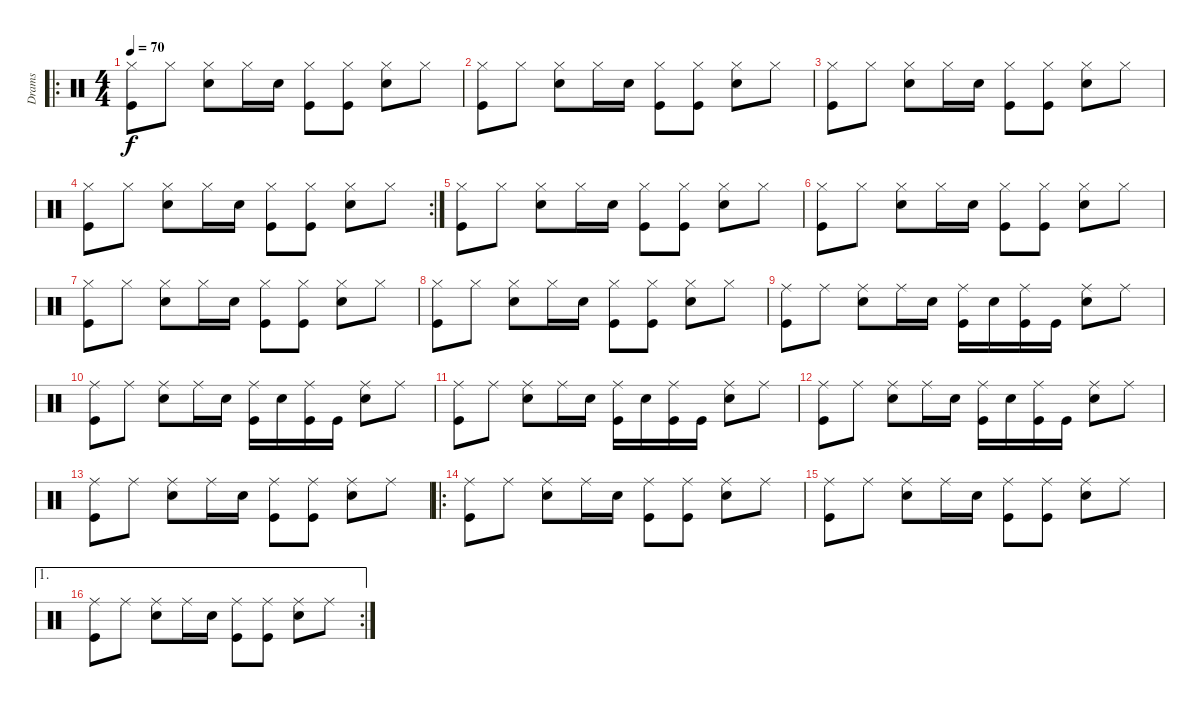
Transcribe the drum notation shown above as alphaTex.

\track ("Drams" "Drams") {instrument percussion}
\staff {score}
\articulation defaults
\ro
\ts (4 4)
\tempo 70
\clef neutral
\ks aminor
("Kick (hit)" "Hi-Hat (closed)").8{dy f} "Hi-Hat (closed)".8 ("Hi-Hat (closed)" "Electric Snare (hit)").8 "Hi-Hat (closed)".16 "Electric Snare (hit)".16 ("Kick (hit)" "Hi-Hat (closed)").8 ("Kick (hit)" "Hi-Hat (closed)").8 ("Electric Snare (hit)" "Hi-Hat (closed)").8 "Hi-Hat (closed)".8 |
("Kick (hit)" "Hi-Hat (closed)").8 "Hi-Hat (closed)".8 ("Hi-Hat (closed)" "Electric Snare (hit)").8 "Hi-Hat (closed)".16 "Electric Snare (hit)".16 ("Kick (hit)" "Hi-Hat (closed)").8 ("Kick (hit)" "Hi-Hat (closed)").8 ("Electric Snare (hit)" "Hi-Hat (closed)").8 "Hi-Hat (closed)".8 |
("Kick (hit)" "Hi-Hat (closed)").8 "Hi-Hat (closed)".8 ("Hi-Hat (closed)" "Electric Snare (hit)").8 "Hi-Hat (closed)".16 "Electric Snare (hit)".16 ("Kick (hit)" "Hi-Hat (closed)").8 ("Kick (hit)" "Hi-Hat (closed)").8 ("Electric Snare (hit)" "Hi-Hat (closed)").8 "Hi-Hat (closed)".8 |
\rc 2
("Kick (hit)" "Hi-Hat (closed)").8 "Hi-Hat (closed)".8 ("Hi-Hat (closed)" "Electric Snare (hit)").8 "Hi-Hat (closed)".16 "Electric Snare (hit)".16 ("Kick (hit)" "Hi-Hat (closed)").8 ("Kick (hit)" "Hi-Hat (closed)").8 ("Electric Snare (hit)" "Hi-Hat (closed)").8 "Hi-Hat (closed)".8 |
("Kick (hit)" "Hi-Hat (closed)").8 "Hi-Hat (closed)".8 ("Hi-Hat (closed)" "Electric Snare (hit)").8 "Hi-Hat (closed)".16 "Electric Snare (hit)".16 ("Kick (hit)" "Hi-Hat (closed)").8 ("Kick (hit)" "Hi-Hat (closed)").8 ("Electric Snare (hit)" "Hi-Hat (closed)").8 "Hi-Hat (closed)".8 |
("Kick (hit)" "Hi-Hat (closed)").8 "Hi-Hat (closed)".8 ("Hi-Hat (closed)" "Electric Snare (hit)").8 "Hi-Hat (closed)".16 "Electric Snare (hit)".16 ("Kick (hit)" "Hi-Hat (closed)").8 ("Kick (hit)" "Hi-Hat (closed)").8 ("Electric Snare (hit)" "Hi-Hat (closed)").8 "Hi-Hat (closed)".8 |
("Kick (hit)" "Hi-Hat (closed)").8 "Hi-Hat (closed)".8 ("Hi-Hat (closed)" "Electric Snare (hit)").8 "Hi-Hat (closed)".16 "Electric Snare (hit)".16 ("Kick (hit)" "Hi-Hat (closed)").8 ("Kick (hit)" "Hi-Hat (closed)").8 ("Electric Snare (hit)" "Hi-Hat (closed)").8 "Hi-Hat (closed)".8 |
("Kick (hit)" "Hi-Hat (closed)").8 "Hi-Hat (closed)".8 ("Hi-Hat (closed)" "Electric Snare (hit)").8 "Hi-Hat (closed)".16 "Electric Snare (hit)".16 ("Kick (hit)" "Hi-Hat (closed)").8 ("Kick (hit)" "Hi-Hat (closed)").8 ("Electric Snare (hit)" "Hi-Hat (closed)").8 "Hi-Hat (closed)".8 |
("Kick (hit)" "Ride (middle)").8 "Ride (middle)".8 ("Electric Snare (hit)" "Ride (middle)").8 "Ride (middle)".16 "Electric Snare (hit)".16 ("Kick (hit)" "Ride (middle)").16 "Electric Snare (hit)".16 ("Kick (hit)" "Ride (middle)").16 "Kick (hit)".16 ("Electric Snare (hit)" "Ride (middle)").8 "Ride (middle)".8 |
("Kick (hit)" "Ride (middle)").8 "Ride (middle)".8 ("Electric Snare (hit)" "Ride (middle)").8 "Ride (middle)".16 "Electric Snare (hit)".16 ("Kick (hit)" "Ride (middle)").16 "Electric Snare (hit)".16 ("Kick (hit)" "Ride (middle)").16 "Kick (hit)".16 ("Electric Snare (hit)" "Ride (middle)").8 "Ride (middle)".8 |
("Kick (hit)" "Ride (middle)").8 "Ride (middle)".8 ("Electric Snare (hit)" "Ride (middle)").8 "Ride (middle)".16 "Electric Snare (hit)".16 ("Kick (hit)" "Ride (middle)").16 "Electric Snare (hit)".16 ("Kick (hit)" "Ride (middle)").16 "Kick (hit)".16 ("Electric Snare (hit)" "Ride (middle)").8 "Ride (middle)".8 |
("Kick (hit)" "Ride (middle)").8 "Ride (middle)".8 ("Electric Snare (hit)" "Ride (middle)").8 "Ride (middle)".16 "Electric Snare (hit)".16 ("Kick (hit)" "Ride (middle)").16 "Electric Snare (hit)".16 ("Kick (hit)" "Ride (middle)").16 "Kick (hit)".16 ("Electric Snare (hit)" "Ride (middle)").8 "Ride (middle)".8 |
("Kick (hit)" "Ride (middle)").8 "Ride (middle)".8 ("Electric Snare (hit)" "Ride (middle)").8 "Ride (middle)".16 "Electric Snare (hit)".16 ("Ride (middle)" "Kick (hit)").8 ("Kick (hit)" "Ride (middle)").8 ("Electric Snare (hit)" "Ride (middle)").8 "Ride (middle)".8 |
\ro
("Kick (hit)" "Ride (middle)").8 "Ride (middle)".8 ("Electric Snare (hit)" "Ride (middle)").8 "Ride (middle)".16 "Electric Snare (hit)".16 ("Ride (middle)" "Kick (hit)").8 ("Kick (hit)" "Ride (middle)").8 ("Electric Snare (hit)" "Ride (middle)").8 "Ride (middle)".8 |
("Kick (hit)" "Ride (middle)").8 "Ride (middle)".8 ("Electric Snare (hit)" "Ride (middle)").8 "Ride (middle)".16 "Electric Snare (hit)".16 ("Ride (middle)" "Kick (hit)").8 ("Kick (hit)" "Ride (middle)").8 ("Electric Snare (hit)" "Ride (middle)").8 "Ride (middle)".8 |
\ae 1
\rc 2
("Kick (hit)" "Ride (middle)").8 "Ride (middle)".8 ("Electric Snare (hit)" "Ride (middle)").8 "Ride (middle)".16 "Electric Snare (hit)".16 ("Ride (middle)" "Kick (hit)").8 ("Kick (hit)" "Ride (middle)").8 ("Electric Snare (hit)" "Ride (middle)").8 "Ride (middle)".8
